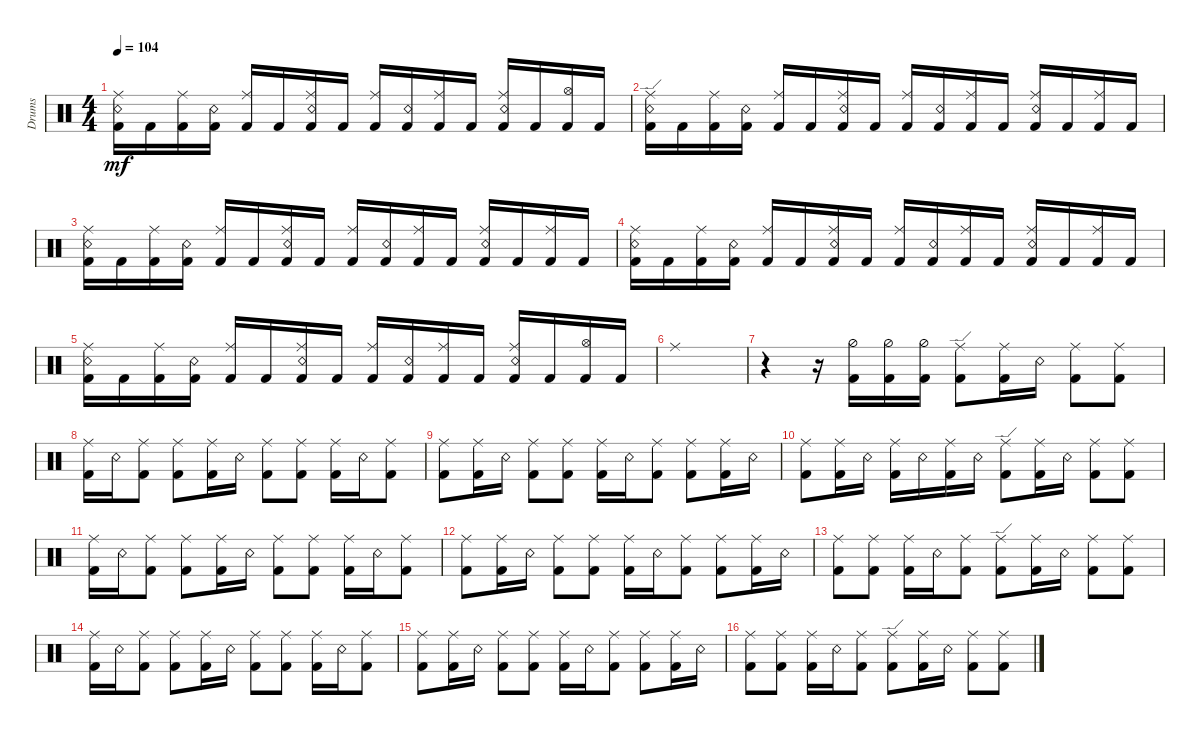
\defaultSystemsLayout 4
\bracketExtendMode groupsimilarinstruments
\otherSystemsTrackNameOrientation horizontal
\track ("Martin Lopez" "Drums") {instrument percussion}
\staff {score}
\articulation defaults
\ts (4 4)
\tempo 104
\clef neutral
\ks c
("Kick (hit) 2" "Snare (rim shot)" "Ride (middle)").16{dy mf beam Down} "Kick (hit) 2".16{beam Down} ("Kick (hit) 2" "Ride (middle)").16{beam Down} ("Kick (hit) 2" "Snare (rim shot)").16{beam Down} ("Kick (hit) 2" "Ride (middle)").16{beam Up} "Kick (hit) 2".16{beam Up} ("Kick (hit) 2" "Snare (rim shot)" "Ride (middle)").16{beam Up} "Kick (hit) 2".16{beam Up} ("Kick (hit) 2" "Ride (middle)").16{beam Up} ("Kick (hit) 2" "Snare (rim shot)").16{beam Up} ("Kick (hit) 2" "Ride (middle)").16{beam Up} "Kick (hit) 2".16{beam Up} ("Kick (hit) 2" "Snare (rim shot)" "Ride (middle)").16{beam Up} "Kick (hit) 2".16{beam Up} ("Kick (hit) 2" "Hi-Hat (open)").16{beam Up} "Kick (hit) 2".16{beam Up} |
("Kick (hit) 2" "Snare (rim shot)" "Ride (edge)").16{beam Down} "Kick (hit) 2".16{beam Down} ("Kick (hit) 2" "Ride (middle)").16{beam Down} ("Kick (hit) 2" "Snare (rim shot)").16{beam Down} ("Kick (hit) 2" "Ride (middle)").16{beam Up} "Kick (hit) 2".16{beam Up} ("Kick (hit) 2" "Snare (rim shot)" "Ride (middle)").16{beam Up} "Kick (hit) 2".16{beam Up} ("Kick (hit) 2" "Ride (middle)").16{beam Up} ("Kick (hit) 2" "Snare (rim shot)").16{beam Up} ("Kick (hit) 2" "Ride (middle)").16{beam Up} "Kick (hit) 2".16{beam Up} ("Kick (hit) 2" "Snare (rim shot)" "Ride (middle)").16{beam Up} "Kick (hit) 2".16{beam Up} ("Kick (hit) 2" "Ride (middle)").16{beam Up} "Kick (hit) 2".16{beam Up} |
("Kick (hit) 2" "Snare (rim shot)" "Ride (middle)").16{beam Down} "Kick (hit) 2".16{beam Down} ("Kick (hit) 2" "Ride (middle)").16{beam Down} ("Kick (hit) 2" "Snare (rim shot)").16{beam Down} ("Kick (hit) 2" "Ride (middle)").16{beam Up} "Kick (hit) 2".16{beam Up} ("Kick (hit) 2" "Snare (rim shot)" "Ride (middle)").16{beam Up} "Kick (hit) 2".16{beam Up} ("Kick (hit) 2" "Ride (middle)").16{beam Up} ("Kick (hit) 2" "Snare (rim shot)").16{beam Up} ("Kick (hit) 2" "Ride (middle)").16{beam Up} "Kick (hit) 2".16{beam Up} ("Kick (hit) 2" "Snare (rim shot)" "Ride (middle)").16{beam Up} "Kick (hit) 2".16{beam Up} ("Kick (hit) 2" "Ride (middle)").16{beam Up} "Kick (hit) 2".16{beam Up} |
("Kick (hit) 2" "Snare (rim shot)" "Ride (middle)").16{beam Down} "Kick (hit) 2".16{beam Down} ("Kick (hit) 2" "Ride (middle)").16{beam Down} ("Kick (hit) 2" "Snare (rim shot)").16{beam Down} ("Kick (hit) 2" "Ride (middle)").16{beam Up} "Kick (hit) 2".16{beam Up} ("Kick (hit) 2" "Snare (rim shot)" "Ride (middle)").16{beam Up} "Kick (hit) 2".16{beam Up} ("Kick (hit) 2" "Ride (middle)").16{beam Up} ("Kick (hit) 2" "Snare (rim shot)").16{beam Up} ("Kick (hit) 2" "Ride (middle)").16{beam Up} "Kick (hit) 2".16{beam Up} ("Kick (hit) 2" "Snare (rim shot)" "Ride (middle)").16{beam Up} "Kick (hit) 2".16{beam Up} ("Kick (hit) 2" "Ride (middle)").16{beam Up} "Kick (hit) 2".16{beam Up} |
("Kick (hit) 2" "Snare (rim shot)" "Ride (middle)").16{beam Down} "Kick (hit) 2".16{beam Down} ("Kick (hit) 2" "Ride (middle)").16{beam Down} ("Kick (hit) 2" "Snare (rim shot)").16{beam Down} ("Kick (hit) 2" "Ride (middle)").16{beam Up} "Kick (hit) 2".16{beam Up} ("Kick (hit) 2" "Snare (rim shot)" "Ride (middle)").16{beam Up} "Kick (hit) 2".16{beam Up} ("Kick (hit) 2" "Ride (middle)").16{beam Up} ("Kick (hit) 2" "Snare (rim shot)").16{beam Up} ("Kick (hit) 2" "Ride (middle)").16{beam Up} "Kick (hit) 2".16{beam Up} ("Kick (hit) 2" "Snare (rim shot)" "Ride (middle)").16{beam Up} "Kick (hit) 2".16{beam Up} ("Kick (hit) 2" "Hi-Hat (open)").16{beam Up} "Kick (hit) 2".16{beam Up} |
"Ride (middle)".1{beam Down} |
r.4{beam Down} r.16{beam Down} ("Kick (hit) 2" "Hi-Hat (half)").16{beam Down} ("Kick (hit) 2" "Hi-Hat (half)").16{beam Down} ("Kick (hit) 2" "Hi-Hat (half)").16{beam Down} ("Kick (hit) 2" "Ride (edge)").8{beam Down} ("Kick (hit) 2" "Ride (middle)").16{beam Down} "Snare (rim shot)".16{beam Down} ("Kick (hit) 2" "Ride (middle)").8{beam Down} ("Kick (hit) 2" "Ride (middle)").8{beam Down} |
("Kick (hit) 2" "Ride (middle)").16{beam Down} "Snare (rim shot)".16{beam Down} ("Kick (hit) 2" "Ride (middle)").8{beam Down} ("Kick (hit) 2" "Ride (middle)").8{beam Down} ("Kick (hit) 2" "Ride (middle)").16{beam Down} "Snare (rim shot)".16{beam Down} ("Kick (hit) 2" "Ride (middle)").8{beam Down} ("Kick (hit) 2" "Ride (middle)").8{beam Down} ("Kick (hit) 2" "Ride (middle)").16{beam Down} "Snare (rim shot)".16{beam Down} ("Kick (hit) 2" "Ride (middle)").8{beam Down} |
("Kick (hit) 2" "Ride (middle)").8{beam Down} ("Kick (hit) 2" "Ride (middle)").16{beam Down} "Snare (rim shot)".16{beam Down} ("Kick (hit) 2" "Ride (middle)").8{beam Down} ("Kick (hit) 2" "Ride (middle)").8{beam Down} ("Kick (hit) 2" "Ride (middle)").16{beam Down} "Snare (rim shot)".16{beam Down} ("Kick (hit) 2" "Ride (middle)").8{beam Down} ("Kick (hit) 2" "Ride (middle)").8{beam Down} ("Kick (hit) 2" "Ride (middle)").16{beam Down} "Snare (rim shot)".16{beam Down} |
("Kick (hit) 2" "Ride (middle)").8{beam Down} ("Kick (hit) 2" "Ride (middle)").16{beam Down} "Snare (rim shot)".16{beam Down} ("Kick (hit) 2" "Ride (middle)").16{beam Down} "Snare (rim shot)".16{beam Down} ("Kick (hit) 2" "Ride (middle)").16{beam Down} "Snare (rim shot)".16{beam Down} ("Kick (hit) 2" "Ride (edge)").8{beam Down} ("Kick (hit) 2" "Ride (middle)").16{beam Down} "Snare (rim shot)".16{beam Down} ("Kick (hit) 2" "Ride (middle)").8{beam Down} ("Kick (hit) 2" "Ride (middle)").8{beam Down} |
("Kick (hit) 2" "Ride (middle)").16{beam Down} "Snare (rim shot)".16{beam Down} ("Kick (hit) 2" "Ride (middle)").8{beam Down} ("Kick (hit) 2" "Ride (middle)").8{beam Down} ("Kick (hit) 2" "Ride (middle)").16{beam Down} "Snare (rim shot)".16{beam Down} ("Kick (hit) 2" "Ride (middle)").8{beam Down} ("Kick (hit) 2" "Ride (middle)").8{beam Down} ("Kick (hit) 2" "Ride (middle)").16{beam Down} "Snare (rim shot)".16{beam Down} ("Kick (hit) 2" "Ride (middle)").8{beam Down} |
("Kick (hit) 2" "Ride (middle)").8{beam Down} ("Kick (hit) 2" "Ride (middle)").16{beam Down} "Snare (rim shot)".16{beam Down} ("Kick (hit) 2" "Ride (middle)").8{beam Down} ("Kick (hit) 2" "Ride (middle)").8{beam Down} ("Kick (hit) 2" "Ride (middle)").16{beam Down} "Snare (rim shot)".16{beam Down} ("Kick (hit) 2" "Ride (middle)").8{beam Down} ("Kick (hit) 2" "Ride (middle)").8{beam Down} ("Kick (hit) 2" "Ride (middle)").16{beam Down} "Snare (rim shot)".16{beam Down} |
("Kick (hit) 2" "Ride (middle)").8{beam Down} ("Kick (hit) 2" "Ride (middle)").8{beam Down} ("Kick (hit) 2" "Ride (middle)").16{beam Down} "Snare (rim shot)".16{beam Down} ("Kick (hit) 2" "Ride (middle)").8{beam Down} ("Kick (hit) 2" "Ride (edge)").8{beam Down} ("Kick (hit) 2" "Ride (middle)").16{beam Down} "Snare (rim shot)".16{beam Down} ("Kick (hit) 2" "Ride (middle)").8{beam Down} ("Kick (hit) 2" "Ride (middle)").8{beam Down} |
("Kick (hit) 2" "Ride (middle)").16{beam Down} "Snare (rim shot)".16{beam Down} ("Kick (hit) 2" "Ride (middle)").8{beam Down} ("Kick (hit) 2" "Ride (middle)").8{beam Down} ("Kick (hit) 2" "Ride (middle)").16{beam Down} "Snare (rim shot)".16{beam Down} ("Kick (hit) 2" "Ride (middle)").8{beam Down} ("Kick (hit) 2" "Ride (middle)").8{beam Down} ("Kick (hit) 2" "Ride (middle)").16{beam Down} "Snare (rim shot)".16{beam Down} ("Kick (hit) 2" "Ride (middle)").8{beam Down} |
("Kick (hit) 2" "Ride (middle)").8{beam Down} ("Kick (hit) 2" "Ride (middle)").16{beam Down} "Snare (rim shot)".16{beam Down} ("Kick (hit) 2" "Ride (middle)").8{beam Down} ("Kick (hit) 2" "Ride (middle)").8{beam Down} ("Kick (hit) 2" "Ride (middle)").16{beam Down} "Snare (rim shot)".16{beam Down} ("Kick (hit) 2" "Ride (middle)").8{beam Down} ("Kick (hit) 2" "Ride (middle)").8{beam Down} ("Kick (hit) 2" "Ride (middle)").16{beam Down} "Snare (rim shot)".16{beam Down} |
("Kick (hit) 2" "Ride (middle)").8{beam Down} ("Kick (hit) 2" "Ride (middle)").8{beam Down} ("Kick (hit) 2" "Ride (middle)").16{beam Down} "Snare (rim shot)".16{beam Down} ("Kick (hit) 2" "Ride (middle)").8{beam Down} ("Kick (hit) 2" "Ride (edge)").8{beam Down} ("Kick (hit) 2" "Ride (middle)").16{beam Down} "Snare (rim shot)".16{beam Down} ("Kick (hit) 2" "Ride (middle)").8{beam Down} ("Kick (hit) 2" "Ride (middle)").8{beam Down}
